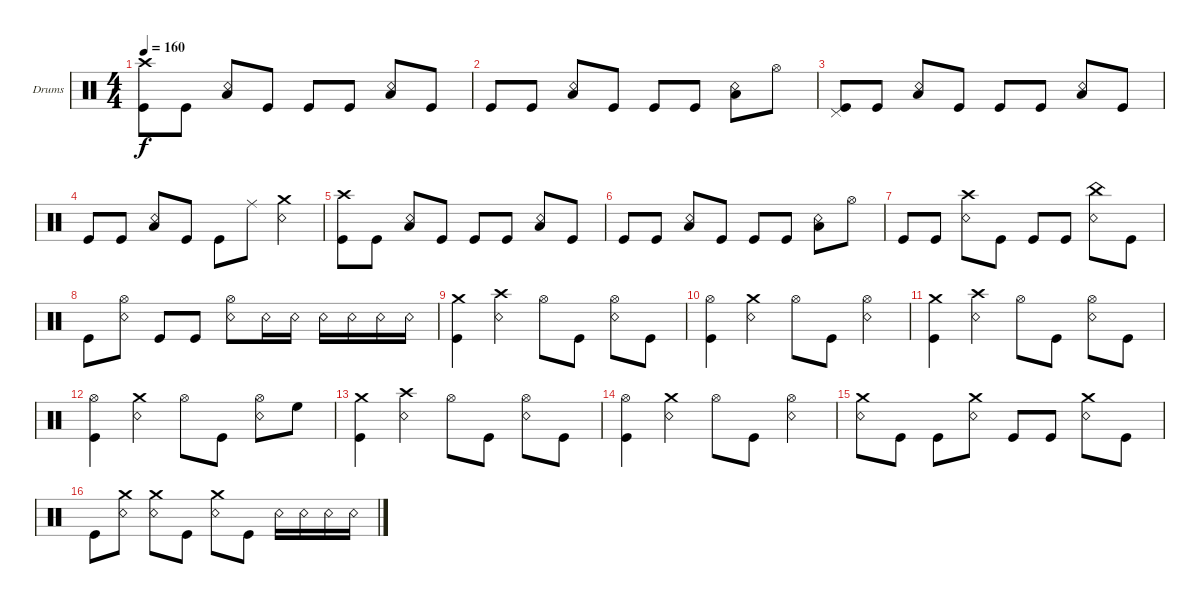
\bracketExtendMode groupsimilarinstruments
\firstSystemTrackNameOrientation horizontal
\otherSystemsTrackNameOrientation horizontal
\track ("Drumkit" "Drums") {instrument percussion}
\staff {score}
\articulation defaults
\ts (4 4)
\tempo 160
\clef neutral
\scale
0.333333
\ks c
("Kick (hit)" "Crash high (hit)").8{dy f} "Kick (hit)".8 ("Snare (rim shot)" "Low Tom (hit)").8 "Kick (hit)".8 "Kick (hit)".8 "Kick (hit)".8 ("Snare (rim shot)" "Low Tom (hit)").8 "Kick (hit)".8 |
\scale
0.333333 "Kick (hit)".8 "Kick (hit)".8 ("Snare (rim shot)" "Low Tom (hit)").8 "Kick (hit)".8 "Kick (hit)".8 "Kick (hit)".8 ("Snare (rim shot)" "Low Tom (hit)").8 "Hi-Hat (open)".8 |
\scale
0.333333 ("Kick (hit)" "Pedal Hi-Hat (hit)").8 "Kick (hit)".8 ("Snare (rim shot)" "Low Tom (hit)").8 "Kick (hit)".8 "Kick (hit)".8 "Kick (hit)".8 ("Snare (rim shot)" "Low Tom (hit)").8 "Kick (hit)".8 |
\scale
0.333333 "Kick (hit)".8 "Kick (hit)".8 ("Snare (rim shot)" "Low Tom (hit)").8 "Kick (hit)".8 "Kick (hit)".8 "Ride (middle)".8 ("Snare (rim shot)" "Crash medium (hit)").4 |
\scale
0.333333 ("Kick (hit)" "Crash high (hit)").8 "Kick (hit)".8 ("Snare (rim shot)" "Low Tom (hit)").8 "Kick (hit)".8 "Kick (hit)".8 "Kick (hit)".8 ("Snare (rim shot)" "Low Tom (hit)").8 "Kick (hit)".8 |
\scale
0.333333 "Kick (hit)".8 "Kick (hit)".8 ("Snare (rim shot)" "Low Tom (hit)").8 "Kick (hit)".8 "Kick (hit)".8 "Kick (hit)".8 ("Snare (rim shot)" "Low Tom (hit)").8 "Hi-Hat (open)".8 |
\scale
0.333333 "Kick (hit)".8 "Kick (hit)".8 ("Snare (rim shot)" "Crash high (hit)").8 "Kick (hit)".8 "Kick (hit)".8 "Kick (hit)".8 ("Snare (rim shot)" "China (hit)").8 "Kick (hit)".8 |
\scale
0.333333 "Kick (hit)".8 ("Snare (rim shot)" "Hi-Hat (open)").8 "Kick (hit)".8 "Kick (hit)".8 ("Snare (rim shot)" "Hi-Hat (open)").8 "Snare (rim shot)".16 "Snare (rim shot)".16 "Snare (rim shot)".16 "Snare (rim shot)".16 "Snare (rim shot)".16 "Snare (rim shot)".16 |
\scale
0.333333 ("Crash medium (hit)" "Kick (hit)").4 ("Crash high (hit)" "Snare (rim shot)").4 "Hi-Hat (open)".8 "Kick (hit)".8 ("Hi-Hat (open)" "Snare (rim shot)").8 "Kick (hit)".8 |
\scale
0.333333 ("Hi-Hat (open)" "Kick (hit)").4 ("Crash medium (hit)" "Snare (rim shot)").4 "Hi-Hat (open)".8 "Kick (hit)".8 ("Hi-Hat (open)" "Snare (rim shot)").4 |
\scale
0.333333 ("Crash medium (hit)" "Kick (hit)").4 ("Crash high (hit)" "Snare (rim shot)").4 "Hi-Hat (open)".8 "Kick (hit)".8 ("Hi-Hat (open)" "Snare (rim shot)").8 "Kick (hit)".8 |
\scale
0.333333 ("Hi-Hat (open)" "Kick (hit)").4 ("Crash medium (hit)" "Snare (rim shot)").4 "Hi-Hat (open)".8 "Kick (hit)".8 ("Hi-Hat (open)" "Snare (rim shot)").8 "High Floor Tom (hit)".8 |
\scale
0.333333 ("Crash medium (hit)" "Kick (hit)").4 ("Crash high (hit)" "Snare (rim shot)").4 "Hi-Hat (open)".8 "Kick (hit)".8 ("Hi-Hat (open)" "Snare (rim shot)").8 "Kick (hit)".8 |
\scale
0.333333 ("Hi-Hat (open)" "Kick (hit)").4 ("Crash medium (hit)" "Snare (rim shot)").4 "Hi-Hat (open)".8 "Kick (hit)".8 ("Hi-Hat (open)" "Snare (rim shot)").4 |
\scale
0.333333 ("Crash medium (hit)" "Snare (rim shot)").8 "Kick (hit)".8 "Kick (hit)".8 ("Crash medium (hit)" "Snare (rim shot)").8 "Kick (hit)".8 "Kick (hit)".8 ("Crash medium (hit)" "Snare (rim shot)").8 "Kick (hit)".8 |
\scale
0.333333 "Kick (hit)".8 ("Crash medium (hit)" "Snare (rim shot)").8 ("Crash medium (hit)" "Snare (rim shot)").8 "Kick (hit)".8 ("Crash medium (hit)" "Snare (rim shot)").8 "Kick (hit)".8 "Snare (rim shot)".16 "Snare (rim shot)".16 "Snare (rim shot)".16 "Snare (rim shot)".16
